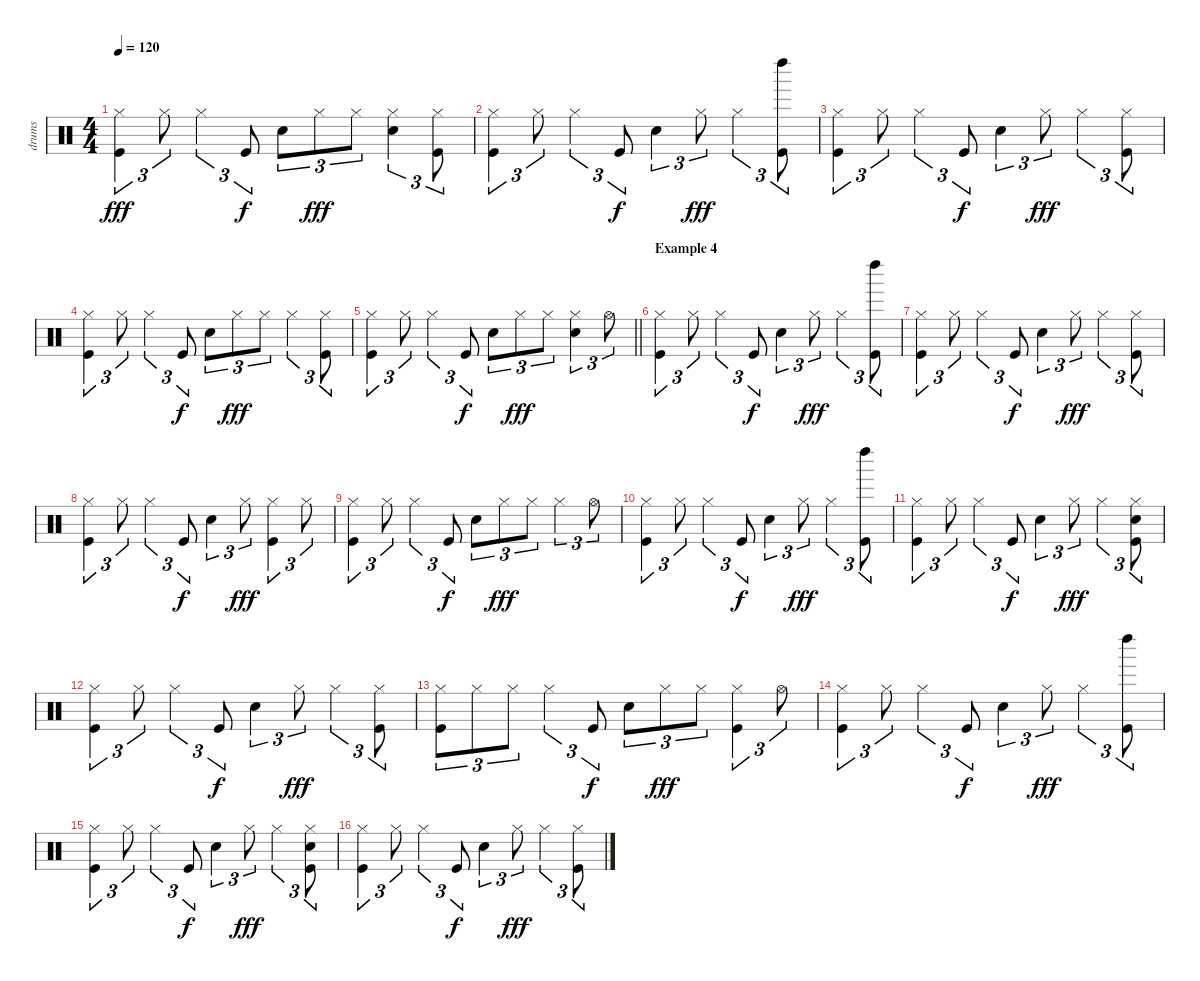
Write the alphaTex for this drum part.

\track ("drums" "drums") {instrument percussion}
\staff {score}
\articulation defaults
\ts (4 4)
\tempo 120
\clef neutral
\ks c
("Hi-Hat (closed)" "Kick (hit)").4{tu (3 2) dy fff} "Hi-Hat (closed)".8{tu (3 2)} "Hi-Hat (closed)".4{tu (3 2)} "Kick (hit)".8{tu (3 2) dy f} "Snare (hit) 2".8{tu (3 2)} "Hi-Hat (closed)".8{tu (3 2) dy fff} "Hi-Hat (closed)".8{tu (3 2)} ("Snare (hit) 2" "Hi-Hat (closed)").4{tu (3 2)} ("Hi-Hat (closed)" "Kick (hit)").8{tu (3 2)} |
("Hi-Hat (closed)" "Kick (hit)").4{tu (3 2)} "Hi-Hat (closed)".8{tu (3 2)} "Hi-Hat (closed)".4{tu (3 2)} "Kick (hit)".8{tu (3 2) dy f} "Snare (hit) 2".4{tu (3 2)} "Hi-Hat (closed)".8{tu (3 2) dy fff} "Hi-Hat (closed)".4{tu (3 2)} ("Left Maraca (hit)" "Kick (hit)").8{tu (3 2)} |
("Hi-Hat (closed)" "Kick (hit)").4{tu (3 2)} "Hi-Hat (closed)".8{tu (3 2)} "Hi-Hat (closed)".4{tu (3 2)} "Kick (hit)".8{tu (3 2) dy f} "Snare (hit) 2".4{tu (3 2)} "Hi-Hat (closed)".8{tu (3 2) dy fff} "Hi-Hat (closed)".4{tu (3 2)} ("Hi-Hat (closed)" "Kick (hit)").8{tu (3 2)} |
("Hi-Hat (closed)" "Kick (hit)").4{tu (3 2)} "Hi-Hat (closed)".8{tu (3 2)} "Hi-Hat (closed)".4{tu (3 2)} "Kick (hit)".8{tu (3 2) dy f} "Snare (hit) 2".8{tu (3 2)} "Hi-Hat (closed)".8{tu (3 2) dy fff} "Hi-Hat (closed)".8{tu (3 2)} "Hi-Hat (closed)".4{tu (3 2)} ("Hi-Hat (closed)" "Kick (hit)").8{tu (3 2)} |
\barLineRight lightlight
("Hi-Hat (closed)" "Kick (hit)").4{tu (3 2)} "Hi-Hat (closed)".8{tu (3 2)} "Hi-Hat (closed)".4{tu (3 2)} "Kick (hit)".8{tu (3 2) dy f} "Snare (hit) 2".8{tu (3 2)} "Hi-Hat (closed)".8{tu (3 2) dy fff} "Hi-Hat (closed)".8{tu (3 2)} ("Snare (hit) 2" "Hi-Hat (closed)").4{tu (3 2)} "Hi-Hat (open)".8{tu (3 2)} |
\section ("" "Example 4")
("Hi-Hat (closed)" "Kick (hit)").4{tu (3 2)} "Hi-Hat (closed)".8{tu (3 2)} "Hi-Hat (closed)".4{tu (3 2)} "Kick (hit)".8{tu (3 2) dy f} "Snare (hit) 2".4{tu (3 2)} "Hi-Hat (closed)".8{tu (3 2) dy fff} "Hi-Hat (closed)".4{tu (3 2)} ("Left Maraca (hit)" "Kick (hit)").8{tu (3 2)} |
("Hi-Hat (closed)" "Kick (hit)").4{tu (3 2)} "Hi-Hat (closed)".8{tu (3 2)} "Hi-Hat (closed)".4{tu (3 2)} "Kick (hit)".8{tu (3 2) dy f} "Snare (hit) 2".4{tu (3 2)} "Hi-Hat (closed)".8{tu (3 2) dy fff} "Hi-Hat (closed)".4{tu (3 2)} ("Hi-Hat (closed)" "Kick (hit)").8{tu (3 2)} |
("Hi-Hat (closed)" "Kick (hit)").4{tu (3 2)} "Hi-Hat (closed)".8{tu (3 2)} "Hi-Hat (closed)".4{tu (3 2)} "Kick (hit)".8{tu (3 2) dy f} "Snare (hit) 2".4{tu (3 2)} "Hi-Hat (closed)".8{tu (3 2) dy fff} ("Hi-Hat (closed)" "Kick (hit)").4{tu (3 2)} "Hi-Hat (closed)".8{tu (3 2)} |
("Hi-Hat (closed)" "Kick (hit)").4{tu (3 2)} "Hi-Hat (closed)".8{tu (3 2)} "Hi-Hat (closed)".4{tu (3 2)} "Kick (hit)".8{tu (3 2) dy f} "Snare (hit) 2".8{tu (3 2)} "Hi-Hat (closed)".8{tu (3 2) dy fff} "Hi-Hat (closed)".8{tu (3 2)} "Hi-Hat (closed)".4{tu (3 2)} "Hi-Hat (open)".8{tu (3 2)} |
("Hi-Hat (closed)" "Kick (hit)").4{tu (3 2)} "Hi-Hat (closed)".8{tu (3 2)} "Hi-Hat (closed)".4{tu (3 2)} "Kick (hit)".8{tu (3 2) dy f} "Snare (hit) 2".4{tu (3 2)} "Hi-Hat (closed)".8{tu (3 2) dy fff} "Hi-Hat (closed)".4{tu (3 2)} ("Left Maraca (hit)" "Kick (hit)").8{tu (3 2)} |
("Hi-Hat (closed)" "Kick (hit)").4{tu (3 2)} "Hi-Hat (closed)".8{tu (3 2)} "Hi-Hat (closed)".4{tu (3 2)} "Kick (hit)".8{tu (3 2) dy f} "Snare (hit) 2".4{tu (3 2)} "Hi-Hat (closed)".8{tu (3 2) dy fff} "Hi-Hat (closed)".4{tu (3 2)} ("Snare (hit) 2" "Hi-Hat (closed)" "Kick (hit)").8{tu (3 2)} |
("Hi-Hat (closed)" "Kick (hit)").4{tu (3 2)} "Hi-Hat (closed)".8{tu (3 2)} "Hi-Hat (closed)".4{tu (3 2)} "Kick (hit)".8{tu (3 2) dy f} "Snare (hit) 2".4{tu (3 2)} "Hi-Hat (closed)".8{tu (3 2) dy fff} "Hi-Hat (closed)".4{tu (3 2)} ("Hi-Hat (closed)" "Kick (hit)").8{tu (3 2)} |
("Hi-Hat (closed)" "Kick (hit)").8{tu (3 2)} "Hi-Hat (closed)".8{tu (3 2)} "Hi-Hat (closed)".8{tu (3 2)} "Hi-Hat (closed)".4{tu (3 2)} "Kick (hit)".8{tu (3 2) dy f} "Snare (hit) 2".8{tu (3 2)} "Hi-Hat (closed)".8{tu (3 2) dy fff} "Hi-Hat (closed)".8{tu (3 2)} ("Hi-Hat (closed)" "Kick (hit)").4{tu (3 2)} "Hi-Hat (open)".8{tu (3 2)} |
("Hi-Hat (closed)" "Kick (hit)").4{tu (3 2)} "Hi-Hat (closed)".8{tu (3 2)} "Hi-Hat (closed)".4{tu (3 2)} "Kick (hit)".8{tu (3 2) dy f} "Snare (hit) 2".4{tu (3 2)} "Hi-Hat (closed)".8{tu (3 2) dy fff} "Hi-Hat (closed)".4{tu (3 2)} ("Left Maraca (hit)" "Kick (hit)").8{tu (3 2)} |
("Hi-Hat (closed)" "Kick (hit)").4{tu (3 2)} "Hi-Hat (closed)".8{tu (3 2)} "Hi-Hat (closed)".4{tu (3 2)} "Kick (hit)".8{tu (3 2) dy f} "Snare (hit) 2".4{tu (3 2)} "Hi-Hat (closed)".8{tu (3 2) dy fff} "Hi-Hat (closed)".4{tu (3 2)} ("Snare (hit) 2" "Hi-Hat (closed)" "Kick (hit)").8{tu (3 2)} |
("Hi-Hat (closed)" "Kick (hit)").4{tu (3 2)} "Hi-Hat (closed)".8{tu (3 2)} "Hi-Hat (closed)".4{tu (3 2)} "Kick (hit)".8{tu (3 2) dy f} "Snare (hit) 2".4{tu (3 2)} "Hi-Hat (closed)".8{tu (3 2) dy fff} "Hi-Hat (closed)".4{tu (3 2)} ("Hi-Hat (closed)" "Kick (hit)").8{tu (3 2)}
